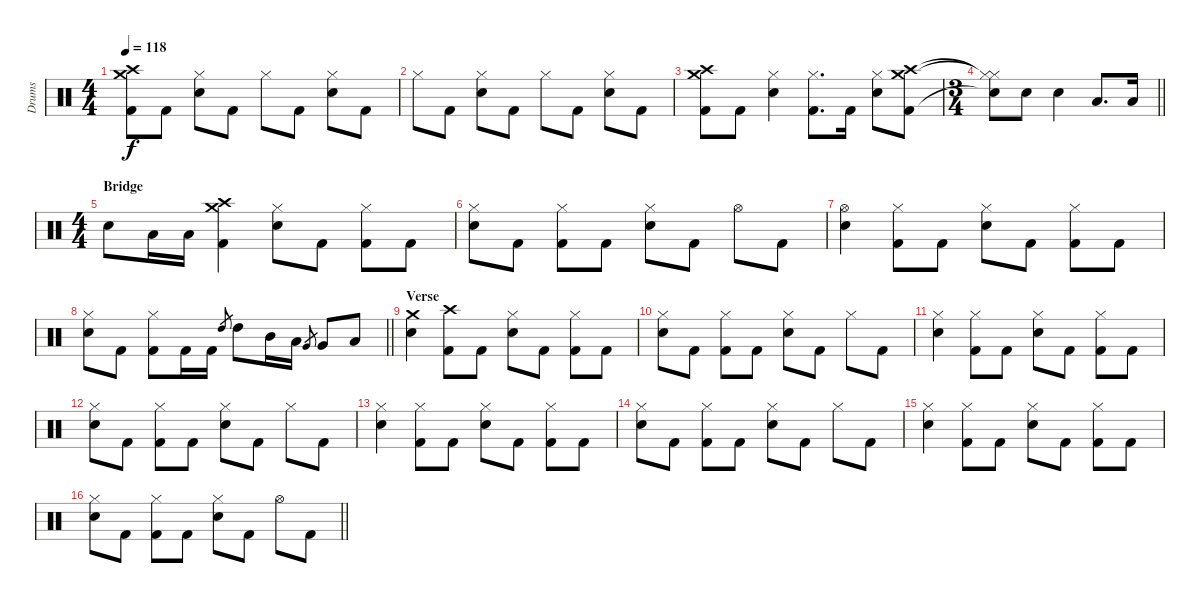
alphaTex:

\track ("Drums" "Drums") {instrument percussion}
\staff {score}
\articulation defaults
\ts (4 4)
\tempo 118
\clef neutral
\ks c
("Crash medium (hit)" "Crash high (hit)" "Kick (hit) 2").8{dy f} "Kick (hit) 2".8 ("Hi-Hat (closed)" "Snare (hit) 2").8 "Kick (hit) 2".8 "Hi-Hat (closed)".8 "Kick (hit) 2".8 ("Hi-Hat (closed)" "Snare (hit) 2").8 "Kick (hit) 2".8 |
"Hi-Hat (closed)".8 "Kick (hit) 2".8 ("Hi-Hat (closed)" "Snare (hit) 2").8 "Kick (hit) 2".8 "Hi-Hat (closed)".8 "Kick (hit) 2".8 ("Hi-Hat (closed)" "Snare (hit) 2").8 "Kick (hit) 2".8 |
("Crash medium (hit)" "Crash high (hit)" "Kick (hit) 2").8 "Kick (hit) 2".8 ("Hi-Hat (closed)" "Snare (hit) 2").4 ("Hi-Hat (closed)" "Kick (hit) 2").8{d} "Kick (hit) 2".16 ("Hi-Hat (closed)" "Snare (hit) 2").8 ("Crash medium (hit)" "Crash high (hit)" "Kick (hit) 2").8 |
\ts (3 4)
\barLineRight lightlight
("Hi-Hat (closed)"{t} "Hi-Hat (closed)"{t} "Snare (hit)"{t}).8 "Snare (hit) 2".8 "Snare (hit) 2".4 "Low Floor Tom (hit)".8{d} "Low Floor Tom (hit)".16 |
\ts (4 4)
\section ("" "Bridge")
"Snare (hit) 2".8 "Low Floor Tom (hit)".16 "Low Floor Tom (hit)".16 ("Crash medium (hit)" "Crash high (hit)" "Kick (hit) 2").4 ("Hi-Hat (closed)" "Snare (hit) 2").8 "Kick (hit) 2".8 ("Hi-Hat (closed)" "Kick (hit) 2").8 "Kick (hit) 2".8 |
("Hi-Hat (closed)" "Snare (hit) 2").8 "Kick (hit) 2".8 ("Hi-Hat (closed)" "Kick (hit) 2").8 "Kick (hit) 2".8 ("Hi-Hat (closed)" "Snare (hit) 2").8 "Kick (hit) 2".8 "Hi-Hat (open)".8 "Kick (hit) 2".8 |
("Hi-Hat (open)" "Snare (hit) 2").4 ("Hi-Hat (closed)" "Kick (hit) 2").8 "Kick (hit) 2".8 ("Hi-Hat (closed)" "Snare (hit) 2").8 "Kick (hit) 2".8 ("Hi-Hat (closed)" "Kick (hit) 2").8 "Kick (hit) 2".8 |
\barLineRight lightlight
("Hi-Hat (closed)" "Snare (hit) 2").8 "Kick (hit) 2".8 ("Hi-Hat (closed)" "Kick (hit) 2").8 "Kick (hit) 2".16 "Kick (hit) 2".16 "High Tom (hit)".8{gr} "High Tom (hit)".8 "Mid Tom (hit)".16 "Low Tom (hit)".16 "Very Low Tom (hit)".8{gr} "Very Low Tom (hit)".8 "Low Floor Tom (hit)".8 |
\section ("" "Verse")
("Crash medium (hit)" "Snare (hit) 2").4 ("Crash high (hit)" "Kick (hit) 2").8 "Kick (hit) 2".8 ("Hi-Hat (closed)" "Snare (hit) 2").8 "Kick (hit) 2".8 ("Hi-Hat (closed)" "Kick (hit) 2").8 "Kick (hit) 2".8 |
("Hi-Hat (closed)" "Snare (hit) 2").8 "Kick (hit) 2".8 ("Hi-Hat (closed)" "Kick (hit) 2").8 "Kick (hit) 2".8 ("Hi-Hat (closed)" "Snare (hit) 2").8 "Kick (hit) 2".8 "Hi-Hat (closed)".8 "Kick (hit) 2".8 |
("Hi-Hat (closed)" "Snare (hit) 2").4 ("Hi-Hat (closed)" "Kick (hit) 2").8 "Kick (hit) 2".8 ("Hi-Hat (closed)" "Snare (hit) 2").8 "Kick (hit) 2".8 ("Hi-Hat (closed)" "Kick (hit) 2").8 "Kick (hit) 2".8 |
("Hi-Hat (closed)" "Snare (hit) 2").8 "Kick (hit) 2".8 ("Hi-Hat (closed)" "Kick (hit) 2").8 "Kick (hit) 2".8 ("Hi-Hat (closed)" "Snare (hit) 2").8 "Kick (hit) 2".8 "Hi-Hat (closed)".8 "Kick (hit) 2".8 |
("Hi-Hat (closed)" "Snare (hit) 2").4 ("Hi-Hat (closed)" "Kick (hit) 2").8 "Kick (hit) 2".8 ("Hi-Hat (closed)" "Snare (hit) 2").8 "Kick (hit) 2".8 ("Hi-Hat (closed)" "Kick (hit) 2").8 "Kick (hit) 2".8 |
("Hi-Hat (closed)" "Snare (hit) 2").8 "Kick (hit) 2".8 ("Hi-Hat (closed)" "Kick (hit) 2").8 "Kick (hit) 2".8 ("Hi-Hat (closed)" "Snare (hit) 2").8 "Kick (hit) 2".8 "Hi-Hat (closed)".8 "Kick (hit) 2".8 |
("Hi-Hat (closed)" "Snare (hit) 2").4 ("Hi-Hat (closed)" "Kick (hit) 2").8 "Kick (hit) 2".8 ("Hi-Hat (closed)" "Snare (hit) 2").8 "Kick (hit) 2".8 ("Hi-Hat (closed)" "Kick (hit) 2").8 "Kick (hit) 2".8 |
\barLineRight lightlight
("Hi-Hat (closed)" "Snare (hit) 2").8 "Kick (hit) 2".8 ("Hi-Hat (closed)" "Kick (hit) 2").8 "Kick (hit) 2".8 ("Hi-Hat (closed)" "Snare (hit) 2").8 "Kick (hit) 2".8 "Hi-Hat (open)".8 "Kick (hit) 2".8
